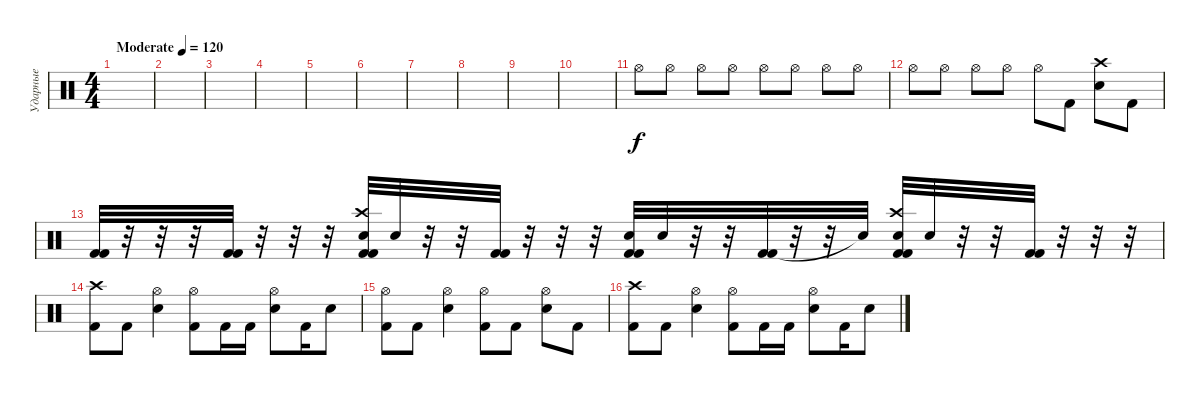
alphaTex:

\track ("Ударные" "Ударные") {instrument percussion}
\staff {score}
\articulation defaults
\ts (4 4)
\tempo (120 "Moderate")
\clef neutral
\ks c
|
|
|
|
|
|
|
|
|
|
"Hi-Hat (open)".8 "Hi-Hat (open)".8 "Hi-Hat (open)".8 "Hi-Hat (open)".8 "Hi-Hat (open)".8 "Hi-Hat (open)".8 "Hi-Hat (open)".8 "Hi-Hat (open)".8 |
"Hi-Hat (open)".8 "Hi-Hat (open)".8 "Hi-Hat (open)".8 "Hi-Hat (open)".8 "Hi-Hat (open)".8 "Kick (hit) 2".8 ("Crash high (hit)" "Snare (hit) 2").8 "Kick (hit) 2".8 |
("Kick (hit) 2" "Kick (hit) 2").32 r.32 r.32 r.32 ("Kick (hit) 2" "Kick (hit) 2").32 r.32 r.32 r.32 ("Crash high (hit)" "Snare (hit) 2" "Kick (hit) 2" "Kick (hit) 2").32 "Snare (hit) 2".32 r.32 r.32 ("Kick (hit) 2" "Kick (hit) 2").32 r.32 r.32 r.32 ("Snare (hit) 2" "Kick (hit) 2" "Kick (hit) 2").32 "Snare (hit) 2".32 r.32 r.32 ("Kick (hit) 2" "Kick (hit) 2").32 r.32 r.32 "Snare (hit)"{t}.32 ("Crash high (hit)" "Snare (hit) 2" "Kick (hit) 2" "Kick (hit) 2").32 "Snare (hit) 2".32 r.32 r.32 ("Kick (hit) 2" "Kick (hit) 2").32 r.32 r.32 r.32 |
("Crash high (hit)" "Kick (hit) 2").8 "Kick (hit) 2".8 ("Hi-Hat (open)" "Electric Snare (hit)").4 ("Hi-Hat (open)" "Kick (hit) 2").8 "Kick (hit) 2".16 "Kick (hit) 2".16 ("Hi-Hat (open)" "Electric Snare (hit)").8 "Kick (hit) 2".16 "Electric Snare (hit)".8 |
("Hi-Hat (open)" "Kick (hit) 2").8 "Kick (hit) 2".8 ("Hi-Hat (open)" "Electric Snare (hit)").4 ("Hi-Hat (open)" "Kick (hit) 2").8 "Kick (hit) 2".8 ("Hi-Hat (open)" "Electric Snare (hit)").8 "Kick (hit) 2".8 |
("Crash high (hit)" "Kick (hit) 2").8 "Kick (hit) 2".8 ("Hi-Hat (open)" "Electric Snare (hit)").4 ("Hi-Hat (open)" "Kick (hit) 2").8 "Kick (hit) 2".16 "Kick (hit) 2".16 ("Hi-Hat (open)" "Electric Snare (hit)").8 "Kick (hit) 2".16 "Electric Snare (hit)".8
